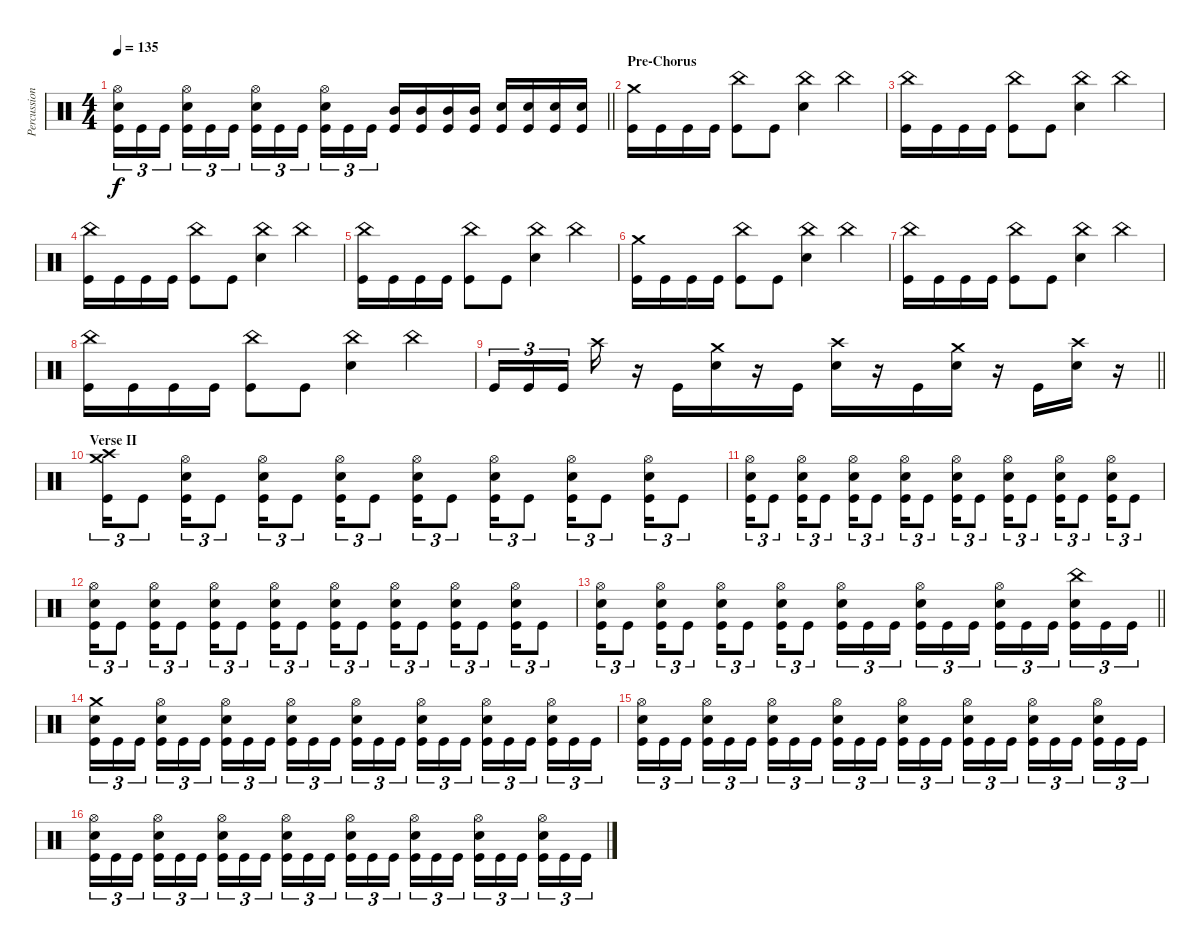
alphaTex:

\track ("Percussion" "Percussion") {instrument percussion}
\staff {score}
\articulation defaults
\ts (4 4)
\tempo 135
\clef neutral
\barLineRight lightlight
\ks c
("Hi-Hat (open)" "Electric Snare (hit)" "Kick (hit)").16{tu (3 2) dy f} "Kick (hit)".16{tu (3 2)} "Kick (hit)".16{tu (3 2) beam splitsecondary} ("Hi-Hat (open)" "Electric Snare (hit)" "Kick (hit)").16{tu (3 2)} "Kick (hit)".16{tu (3 2)} "Kick (hit)".16{tu (3 2)} ("Hi-Hat (open)" "Electric Snare (hit)" "Kick (hit)").16{tu (3 2)} "Kick (hit)".16{tu (3 2)} "Kick (hit)".16{tu (3 2) beam splitsecondary} ("Hi-Hat (open)" "Electric Snare (hit)" "Kick (hit)").16{tu (3 2)} "Kick (hit)".16{tu (3 2)} "Kick (hit)".16{tu (3 2)} ("Mid Tom (hit)" "Kick (hit)").16 ("Mid Tom (hit)" "Kick (hit)").16 ("Mid Tom (hit)" "Kick (hit)").16 ("Mid Tom (hit)" "Kick (hit)").16 ("Electric Snare (hit)" "Kick (hit)").16 ("Electric Snare (hit)" "Kick (hit)").16 ("Electric Snare (hit)" "Kick (hit)").16 ("Electric Snare (hit)" "Kick (hit)").16 |
\section ("" "Pre-Chorus")
("Crash medium (hit)" "Kick (hit)").16 "Kick (hit)".16 "Kick (hit)".16 "Kick (hit)".16 ("China (hit)" "Kick (hit)").8 "Kick (hit)".8 ("China (hit)" "Electric Snare (hit)").4 "China (hit)".4 |
("China (hit)" "Kick (hit)").16 "Kick (hit)".16 "Kick (hit)".16 "Kick (hit)".16 ("China (hit)" "Kick (hit)").8 "Kick (hit)".8 ("China (hit)" "Electric Snare (hit)").4 "China (hit)".4 |
("China (hit)" "Kick (hit)").16 "Kick (hit)".16 "Kick (hit)".16 "Kick (hit)".16 ("China (hit)" "Kick (hit)").8 "Kick (hit)".8 ("China (hit)" "Electric Snare (hit)").4 "China (hit)".4 |
("China (hit)" "Kick (hit)").16 "Kick (hit)".16 "Kick (hit)".16 "Kick (hit)".16 ("China (hit)" "Kick (hit)").8 "Kick (hit)".8 ("China (hit)" "Electric Snare (hit)").4 "China (hit)".4 |
("Crash medium (hit)" "Kick (hit)").16 "Kick (hit)".16 "Kick (hit)".16 "Kick (hit)".16 ("China (hit)" "Kick (hit)").8 "Kick (hit)".8 ("China (hit)" "Electric Snare (hit)").4 "China (hit)".4 |
("China (hit)" "Kick (hit)").16 "Kick (hit)".16 "Kick (hit)".16 "Kick (hit)".16 ("China (hit)" "Kick (hit)").8 "Kick (hit)".8 ("China (hit)" "Electric Snare (hit)").4 "China (hit)".4 |
("China (hit)" "Kick (hit)").16 "Kick (hit)".16 "Kick (hit)".16 "Kick (hit)".16 ("China (hit)" "Kick (hit)").8 "Kick (hit)".8 ("China (hit)" "Electric Snare (hit)").4 "China (hit)".4 |
\barLineRight lightlight "Kick (hit)".16{tu (3 2)} "Kick (hit)".16{tu (3 2)} "Kick (hit)".16{tu (3 2) beam splitsecondary} "Crash high (hit)".16
r.16 "Kick (hit)".16 ("Crash medium (hit)" "Electric Snare (hit)").16 r.16 "Kick (hit)".16 ("Crash high (hit)" "Electric Snare (hit)").16 r.16 "Kick (hit)".16 ("Crash medium (hit)" "Electric Snare (hit)").16 r.16 "Kick (hit)".16 ("Crash high (hit)" "Electric Snare (hit)").16 r.16 |
\section ("" "Verse II")
("Crash high (hit)" "Crash medium (hit)" "Kick (hit)").16{tu (3 2)} "Kick (hit)".8{tu (3 2)} ("Hi-Hat (open)" "Electric Snare (hit)" "Kick (hit)").16{tu (3 2)} "Kick (hit)".8{tu (3 2)} ("Hi-Hat (open)" "Electric Snare (hit)" "Kick (hit)").16{tu (3 2)} "Kick (hit)".8{tu (3 2)} ("Hi-Hat (open)" "Electric Snare (hit)" "Kick (hit)").16{tu (3 2)} "Kick (hit)".8{tu (3 2)} ("Hi-Hat (open)" "Electric Snare (hit)" "Kick (hit)").16{tu (3 2)} "Kick (hit)".8{tu (3 2)} ("Hi-Hat (open)" "Electric Snare (hit)" "Kick (hit)").16{tu (3 2)} "Kick (hit)".8{tu (3 2)} ("Hi-Hat (open)" "Electric Snare (hit)" "Kick (hit)").16{tu (3 2)} "Kick (hit)".8{tu (3 2)} ("Hi-Hat (open)" "Electric Snare (hit)" "Kick (hit)").16{tu (3 2)} "Kick (hit)".8{tu (3 2)} |
("Hi-Hat (open)" "Electric Snare (hit)" "Kick (hit)").16{tu (3 2)} "Kick (hit)".8{tu (3 2)} ("Hi-Hat (open)" "Electric Snare (hit)" "Kick (hit)").16{tu (3 2)} "Kick (hit)".8{tu (3 2)} ("Hi-Hat (open)" "Electric Snare (hit)" "Kick (hit)").16{tu (3 2)} "Kick (hit)".8{tu (3 2)} ("Hi-Hat (open)" "Electric Snare (hit)" "Kick (hit)").16{tu (3 2)} "Kick (hit)".8{tu (3 2)} ("Hi-Hat (open)" "Electric Snare (hit)" "Kick (hit)").16{tu (3 2)} "Kick (hit)".8{tu (3 2)} ("Hi-Hat (open)" "Electric Snare (hit)" "Kick (hit)").16{tu (3 2)} "Kick (hit)".8{tu (3 2)} ("Hi-Hat (open)" "Electric Snare (hit)" "Kick (hit)").16{tu (3 2)} "Kick (hit)".8{tu (3 2)} ("Hi-Hat (open)" "Electric Snare (hit)" "Kick (hit)").16{tu (3 2)} "Kick (hit)".8{tu (3 2)} |
("Hi-Hat (open)" "Electric Snare (hit)" "Kick (hit)").16{tu (3 2)} "Kick (hit)".8{tu (3 2)} ("Hi-Hat (open)" "Electric Snare (hit)" "Kick (hit)").16{tu (3 2)} "Kick (hit)".8{tu (3 2)} ("Hi-Hat (open)" "Electric Snare (hit)" "Kick (hit)").16{tu (3 2)} "Kick (hit)".8{tu (3 2)} ("Hi-Hat (open)" "Electric Snare (hit)" "Kick (hit)").16{tu (3 2)} "Kick (hit)".8{tu (3 2)} ("Hi-Hat (open)" "Electric Snare (hit)" "Kick (hit)").16{tu (3 2)} "Kick (hit)".8{tu (3 2)} ("Hi-Hat (open)" "Electric Snare (hit)" "Kick (hit)").16{tu (3 2)} "Kick (hit)".8{tu (3 2)} ("Hi-Hat (open)" "Electric Snare (hit)" "Kick (hit)").16{tu (3 2)} "Kick (hit)".8{tu (3 2)} ("Hi-Hat (open)" "Electric Snare (hit)" "Kick (hit)").16{tu (3 2)} "Kick (hit)".8{tu (3 2)} |
\barLineRight lightlight
("Hi-Hat (open)" "Electric Snare (hit)" "Kick (hit)").16{tu (3 2)} "Kick (hit)".8{tu (3 2)} ("Hi-Hat (open)" "Electric Snare (hit)" "Kick (hit)").16{tu (3 2)} "Kick (hit)".8{tu (3 2)} ("Hi-Hat (open)" "Electric Snare (hit)" "Kick (hit)").16{tu (3 2)} "Kick (hit)".8{tu (3 2)} ("Hi-Hat (open)" "Electric Snare (hit)" "Kick (hit)").16{tu (3 2)} "Kick (hit)".8{tu (3 2)} ("Hi-Hat (open)" "Electric Snare (hit)" "Kick (hit)").16{tu (3 2)} "Kick (hit)".16{tu (3 2)} "Kick (hit)".16{tu (3 2) beam splitsecondary} ("Hi-Hat (open)" "Electric Snare (hit)" "Kick (hit)").16{tu (3 2)} "Kick (hit)".16{tu (3 2)} "Kick (hit)".16{tu (3 2)} ("Hi-Hat (open)" "Electric Snare (hit)" "Kick (hit)").16{tu (3 2)} "Kick (hit)".16{tu (3 2)} "Kick (hit)".16{tu (3 2) beam splitsecondary} ("China (hit)" "Electric Snare (hit)" "Kick (hit)").16{tu (3 2)} "Kick (hit)".16{tu (3 2)} "Kick (hit)".16{tu (3 2)} |
("Crash medium (hit)" "Electric Snare (hit)" "Kick (hit)").16{tu (3 2)} "Kick (hit)".16{tu (3 2)} "Kick (hit)".16{tu (3 2) beam splitsecondary} ("Hi-Hat (open)" "Electric Snare (hit)" "Kick (hit)").16{tu (3 2)} "Kick (hit)".16{tu (3 2)} "Kick (hit)".16{tu (3 2)} ("Hi-Hat (open)" "Electric Snare (hit)" "Kick (hit)").16{tu (3 2)} "Kick (hit)".16{tu (3 2)} "Kick (hit)".16{tu (3 2) beam splitsecondary} ("Hi-Hat (open)" "Electric Snare (hit)" "Kick (hit)").16{tu (3 2)} "Kick (hit)".16{tu (3 2)} "Kick (hit)".16{tu (3 2)} ("Hi-Hat (open)" "Electric Snare (hit)" "Kick (hit)").16{tu (3 2)} "Kick (hit)".16{tu (3 2)} "Kick (hit)".16{tu (3 2) beam splitsecondary} ("Hi-Hat (open)" "Electric Snare (hit)" "Kick (hit)").16{tu (3 2)} "Kick (hit)".16{tu (3 2)} "Kick (hit)".16{tu (3 2)} ("Hi-Hat (open)" "Electric Snare (hit)" "Kick (hit)").16{tu (3 2)} "Kick (hit)".16{tu (3 2)} "Kick (hit)".16{tu (3 2) beam splitsecondary} ("Hi-Hat (open)" "Electric Snare (hit)" "Kick (hit)").16{tu (3 2)} "Kick (hit)".16{tu (3 2)} "Kick (hit)".16{tu (3 2)} |
("Hi-Hat (open)" "Electric Snare (hit)" "Kick (hit)").16{tu (3 2)} "Kick (hit)".16{tu (3 2)} "Kick (hit)".16{tu (3 2) beam splitsecondary} ("Hi-Hat (open)" "Electric Snare (hit)" "Kick (hit)").16{tu (3 2)} "Kick (hit)".16{tu (3 2)} "Kick (hit)".16{tu (3 2)} ("Hi-Hat (open)" "Electric Snare (hit)" "Kick (hit)").16{tu (3 2)} "Kick (hit)".16{tu (3 2)} "Kick (hit)".16{tu (3 2) beam splitsecondary} ("Hi-Hat (open)" "Electric Snare (hit)" "Kick (hit)").16{tu (3 2)} "Kick (hit)".16{tu (3 2)} "Kick (hit)".16{tu (3 2)} ("Hi-Hat (open)" "Electric Snare (hit)" "Kick (hit)").16{tu (3 2)} "Kick (hit)".16{tu (3 2)} "Kick (hit)".16{tu (3 2) beam splitsecondary} ("Hi-Hat (open)" "Electric Snare (hit)" "Kick (hit)").16{tu (3 2)} "Kick (hit)".16{tu (3 2)} "Kick (hit)".16{tu (3 2)} ("Hi-Hat (open)" "Electric Snare (hit)" "Kick (hit)").16{tu (3 2)} "Kick (hit)".16{tu (3 2)} "Kick (hit)".16{tu (3 2) beam splitsecondary} ("Hi-Hat (open)" "Electric Snare (hit)" "Kick (hit)").16{tu (3 2)} "Kick (hit)".16{tu (3 2)} "Kick (hit)".16{tu (3 2)} |
("Hi-Hat (open)" "Electric Snare (hit)" "Kick (hit)").16{tu (3 2)} "Kick (hit)".16{tu (3 2)} "Kick (hit)".16{tu (3 2) beam splitsecondary} ("Hi-Hat (open)" "Electric Snare (hit)" "Kick (hit)").16{tu (3 2)} "Kick (hit)".16{tu (3 2)} "Kick (hit)".16{tu (3 2)} ("Hi-Hat (open)" "Electric Snare (hit)" "Kick (hit)").16{tu (3 2)} "Kick (hit)".16{tu (3 2)} "Kick (hit)".16{tu (3 2) beam splitsecondary} ("Hi-Hat (open)" "Electric Snare (hit)" "Kick (hit)").16{tu (3 2)} "Kick (hit)".16{tu (3 2)} "Kick (hit)".16{tu (3 2)} ("Hi-Hat (open)" "Electric Snare (hit)" "Kick (hit)").16{tu (3 2)} "Kick (hit)".16{tu (3 2)} "Kick (hit)".16{tu (3 2) beam splitsecondary} ("Hi-Hat (open)" "Electric Snare (hit)" "Kick (hit)").16{tu (3 2)} "Kick (hit)".16{tu (3 2)} "Kick (hit)".16{tu (3 2)} ("Hi-Hat (open)" "Electric Snare (hit)" "Kick (hit)").16{tu (3 2)} "Kick (hit)".16{tu (3 2)} "Kick (hit)".16{tu (3 2) beam splitsecondary} ("Hi-Hat (open)" "Electric Snare (hit)" "Kick (hit)").16{tu (3 2)} "Kick (hit)".16{tu (3 2)} "Kick (hit)".16{tu (3 2)}
